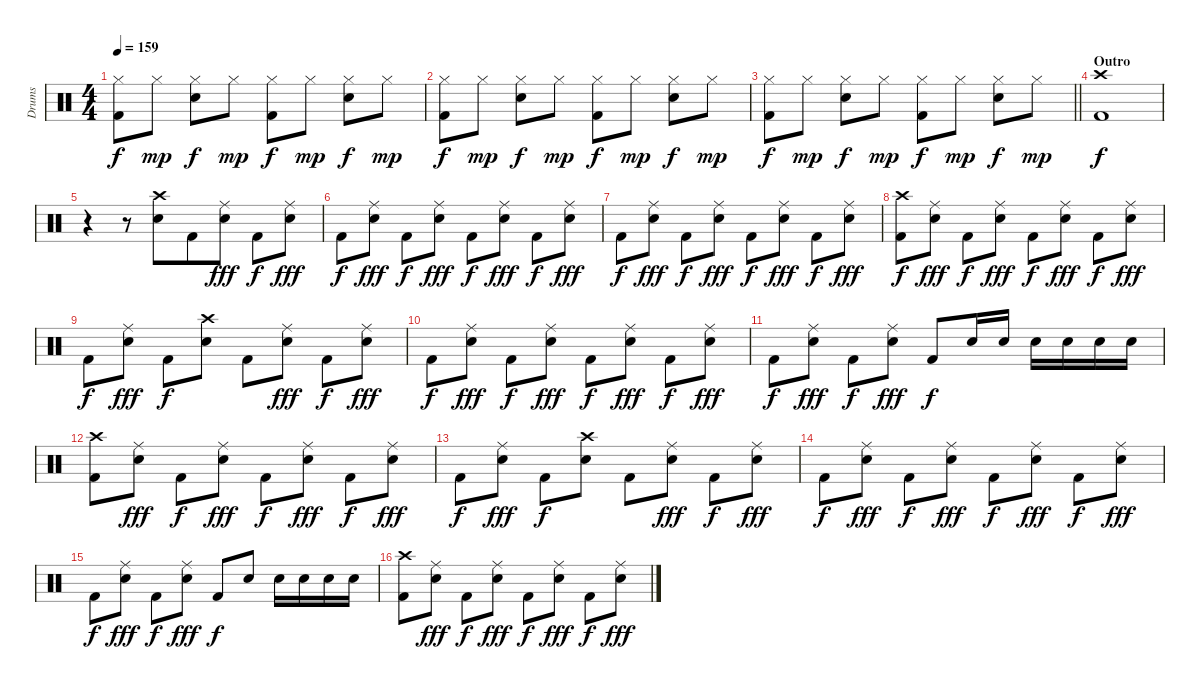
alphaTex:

\track ("Drums" "Drums") {instrument percussion}
\staff {score}
\articulation defaults
\ts (4 4)
\tempo 159
\clef neutral
\ks c
("Hi-Hat (closed)" "Kick (hit) 2").8{dy f} "Hi-Hat (closed)".8{dy mp} ("Hi-Hat (closed)" "Snare (hit) 2").8{dy f} "Hi-Hat (closed)".8{dy mp} ("Hi-Hat (closed)" "Kick (hit) 2").8{dy f} "Hi-Hat (closed)".8{dy mp} ("Hi-Hat (closed)" "Snare (hit) 2").8{dy f} "Hi-Hat (closed)".8{dy mp} |
("Hi-Hat (closed)" "Kick (hit) 2").8{dy f} "Hi-Hat (closed)".8{dy mp} ("Hi-Hat (closed)" "Snare (hit) 2").8{dy f} "Hi-Hat (closed)".8{dy mp} ("Hi-Hat (closed)" "Kick (hit) 2").8{dy f} "Hi-Hat (closed)".8{dy mp} ("Hi-Hat (closed)" "Snare (hit) 2").8{dy f} "Hi-Hat (closed)".8{dy mp} |
\barLineRight lightlight
("Hi-Hat (closed)" "Kick (hit) 2").8{dy f} "Hi-Hat (closed)".8{dy mp} ("Hi-Hat (closed)" "Snare (hit) 2").8{dy f} "Hi-Hat (closed)".8{dy mp} ("Hi-Hat (closed)" "Kick (hit) 2").8{dy f} "Hi-Hat (closed)".8{dy mp} ("Hi-Hat (closed)" "Snare (hit) 2").8{dy f} "Hi-Hat (closed)".8{dy mp} |
\section ("" "Outro")
("Crash high (hit)" "Kick (hit) 2").1{dy f} |
r.4 r.8 ("Crash high (hit)" "Snare (hit) 2").8{beam merge} "Kick (hit) 2".8 ("Ride (middle)" "Snare (hit) 2").8{dy fff} "Kick (hit) 2".8{dy f} ("Ride (middle)" "Snare (hit) 2").8{dy fff} |
"Kick (hit) 2".8{dy f} ("Ride (middle)" "Snare (hit) 2").8{dy fff} "Kick (hit) 2".8{dy f} ("Ride (middle)" "Snare (hit) 2").8{dy fff} "Kick (hit) 2".8{dy f} ("Ride (middle)" "Snare (hit) 2").8{dy fff} "Kick (hit) 2".8{dy f} ("Ride (middle)" "Snare (hit) 2").8{dy fff} |
"Kick (hit) 2".8{dy f} ("Ride (middle)" "Snare (hit) 2").8{dy fff} "Kick (hit) 2".8{dy f} ("Ride (middle)" "Snare (hit) 2").8{dy fff} "Kick (hit) 2".8{dy f} ("Ride (middle)" "Snare (hit) 2").8{dy fff} "Kick (hit) 2".8{dy f} ("Ride (middle)" "Snare (hit) 2").8{dy fff} |
("Crash high (hit)" "Kick (hit) 2").8{dy f} ("Ride (middle)" "Snare (hit) 2").8{dy fff} "Kick (hit) 2".8{dy f} ("Ride (middle)" "Snare (hit) 2").8{dy fff} "Kick (hit) 2".8{dy f} ("Ride (middle)" "Snare (hit) 2").8{dy fff} "Kick (hit) 2".8{dy f} ("Ride (middle)" "Snare (hit) 2").8{dy fff} |
"Kick (hit) 2".8{dy f} ("Ride (middle)" "Snare (hit) 2").8{dy fff} "Kick (hit) 2".8{dy f} ("Crash high (hit)" "Snare (hit) 2").8 "Kick (hit) 2".8 ("Ride (middle)" "Snare (hit) 2").8{dy fff} "Kick (hit) 2".8{dy f} ("Ride (middle)" "Snare (hit) 2").8{dy fff} |
"Kick (hit) 2".8{dy f} ("Ride (middle)" "Snare (hit) 2").8{dy fff} "Kick (hit) 2".8{dy f} ("Ride (middle)" "Snare (hit) 2").8{dy fff} "Kick (hit) 2".8{dy f} ("Ride (middle)" "Snare (hit) 2").8{dy fff} "Kick (hit) 2".8{dy f} ("Ride (middle)" "Snare (hit) 2").8{dy fff} |
"Kick (hit) 2".8{dy f} ("Ride (middle)" "Snare (hit) 2").8{dy fff} "Kick (hit) 2".8{dy f} ("Ride (middle)" "Snare (hit) 2").8{dy fff} "Kick (hit) 2".8{dy f} "Snare (hit) 2".16 "Snare (hit) 2".16 "Snare (hit) 2".16 "Snare (hit) 2".16 "Snare (hit) 2".16 "Snare (hit) 2".16 |
("Crash high (hit)" "Kick (hit) 2").8 ("Ride (middle)" "Snare (hit) 2").8{dy fff} "Kick (hit) 2".8{dy f} ("Ride (middle)" "Snare (hit) 2").8{dy fff} "Kick (hit) 2".8{dy f} ("Ride (middle)" "Snare (hit) 2").8{dy fff} "Kick (hit) 2".8{dy f} ("Ride (middle)" "Snare (hit) 2").8{dy fff} |
"Kick (hit) 2".8{dy f} ("Ride (middle)" "Snare (hit) 2").8{dy fff} "Kick (hit) 2".8{dy f} ("Crash high (hit)" "Snare (hit) 2").8 "Kick (hit) 2".8 ("Ride (middle)" "Snare (hit) 2").8{dy fff} "Kick (hit) 2".8{dy f} ("Ride (middle)" "Snare (hit) 2").8{dy fff} |
"Kick (hit) 2".8{dy f} ("Ride (middle)" "Snare (hit) 2").8{dy fff} "Kick (hit) 2".8{dy f} ("Ride (middle)" "Snare (hit) 2").8{dy fff} "Kick (hit) 2".8{dy f} ("Ride (middle)" "Snare (hit) 2").8{dy fff} "Kick (hit) 2".8{dy f} ("Ride (middle)" "Snare (hit) 2").8{dy fff} |
"Kick (hit) 2".8{dy f} ("Ride (middle)" "Snare (hit) 2").8{dy fff} "Kick (hit) 2".8{dy f} ("Ride (middle)" "Snare (hit) 2").8{dy fff} "Kick (hit) 2".8{dy f} "Snare (hit) 2".8 "Snare (hit) 2".16 "Snare (hit) 2".16 "Snare (hit) 2".16 "Snare (hit) 2".16 |
("Crash high (hit)" "Kick (hit) 2").8 ("Ride (middle)" "Snare (hit) 2").8{dy fff} "Kick (hit) 2".8{dy f} ("Ride (middle)" "Snare (hit) 2").8{dy fff} "Kick (hit) 2".8{dy f} ("Ride (middle)" "Snare (hit) 2").8{dy fff} "Kick (hit) 2".8{dy f} ("Ride (middle)" "Snare (hit) 2").8{dy fff}
